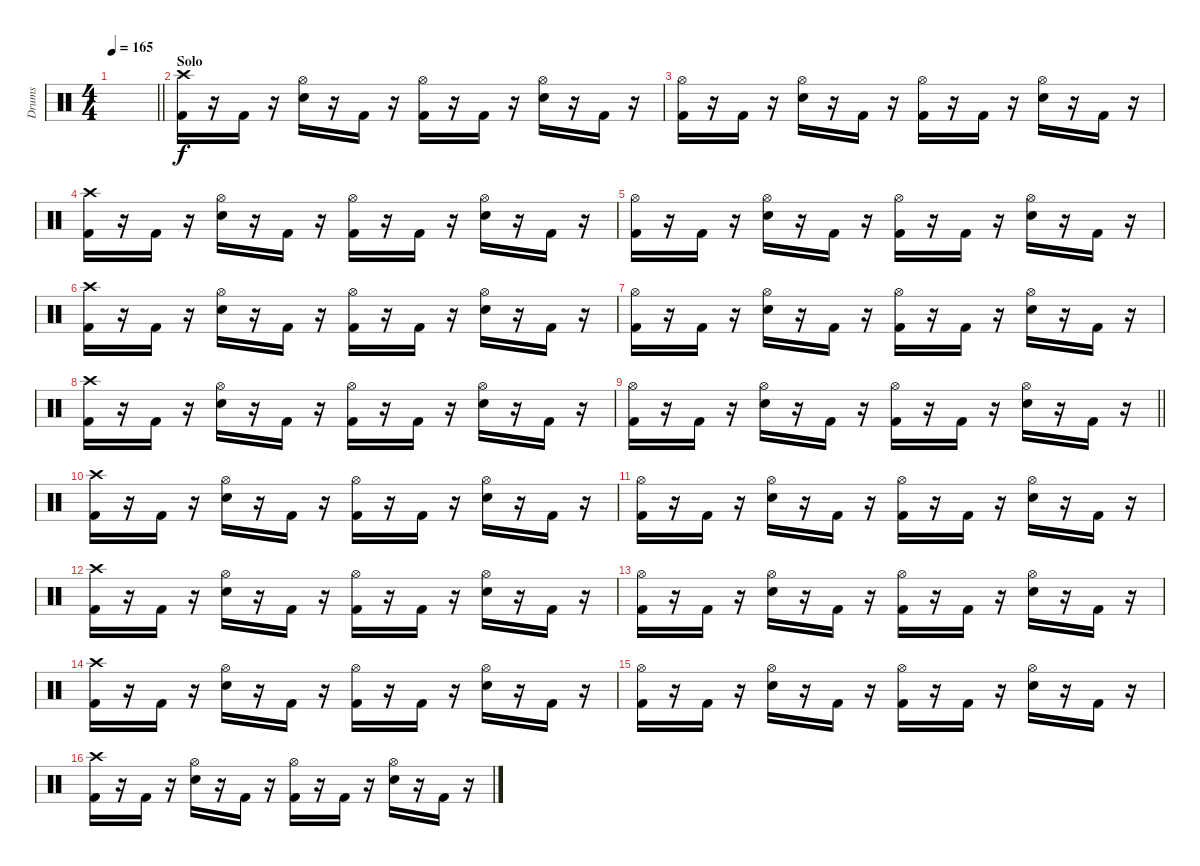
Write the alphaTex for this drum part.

\track ("Drums" "Drums") {instrument percussion}
\staff {score}
\articulation defaults
\ts (4 4)
\tempo 165
\clef neutral
\barLineRight lightlight
\ks c
|
\section ("" "Solo")
("Crash high (hit)" "Kick (hit) 2").16 r.16 "Kick (hit) 2".16 r.16 ("Hi-Hat (open)" "Snare (hit) 2").16 r.16 "Kick (hit) 2".16 r.16 ("Hi-Hat (open)" "Kick (hit) 2").16 r.16 "Kick (hit) 2".16 r.16 ("Hi-Hat (open)" "Snare (hit) 2").16 r.16 "Kick (hit) 2".16 r.16 |
("Hi-Hat (open)" "Kick (hit) 2").16 r.16 "Kick (hit) 2".16 r.16 ("Hi-Hat (open)" "Snare (hit) 2").16 r.16 "Kick (hit) 2".16 r.16 ("Hi-Hat (open)" "Kick (hit) 2").16 r.16 "Kick (hit) 2".16 r.16 ("Hi-Hat (open)" "Snare (hit) 2").16 r.16 "Kick (hit) 2".16 r.16 |
("Crash high (hit)" "Kick (hit) 2").16 r.16 "Kick (hit) 2".16 r.16 ("Hi-Hat (open)" "Snare (hit) 2").16 r.16 "Kick (hit) 2".16 r.16 ("Hi-Hat (open)" "Kick (hit) 2").16 r.16 "Kick (hit) 2".16 r.16 ("Hi-Hat (open)" "Snare (hit) 2").16 r.16 "Kick (hit) 2".16 r.16 |
("Hi-Hat (open)" "Kick (hit) 2").16 r.16 "Kick (hit) 2".16 r.16 ("Hi-Hat (open)" "Snare (hit) 2").16 r.16 "Kick (hit) 2".16 r.16 ("Hi-Hat (open)" "Kick (hit) 2").16 r.16 "Kick (hit) 2".16 r.16 ("Hi-Hat (open)" "Snare (hit) 2").16 r.16 "Kick (hit) 2".16 r.16 |
("Crash high (hit)" "Kick (hit) 2").16 r.16 "Kick (hit) 2".16 r.16 ("Hi-Hat (open)" "Snare (hit) 2").16 r.16 "Kick (hit) 2".16 r.16 ("Hi-Hat (open)" "Kick (hit) 2").16 r.16 "Kick (hit) 2".16 r.16 ("Hi-Hat (open)" "Snare (hit) 2").16 r.16 "Kick (hit) 2".16 r.16 |
("Hi-Hat (open)" "Kick (hit) 2").16 r.16 "Kick (hit) 2".16 r.16 ("Hi-Hat (open)" "Snare (hit) 2").16 r.16 "Kick (hit) 2".16 r.16 ("Hi-Hat (open)" "Kick (hit) 2").16 r.16 "Kick (hit) 2".16 r.16 ("Hi-Hat (open)" "Snare (hit) 2").16 r.16 "Kick (hit) 2".16 r.16 |
("Crash high (hit)" "Kick (hit) 2").16 r.16 "Kick (hit) 2".16 r.16 ("Hi-Hat (open)" "Snare (hit) 2").16 r.16 "Kick (hit) 2".16 r.16 ("Hi-Hat (open)" "Kick (hit) 2").16 r.16 "Kick (hit) 2".16 r.16 ("Hi-Hat (open)" "Snare (hit) 2").16 r.16 "Kick (hit) 2".16 r.16 |
\barLineRight lightlight
("Hi-Hat (open)" "Kick (hit) 2").16 r.16 "Kick (hit) 2".16 r.16 ("Hi-Hat (open)" "Snare (hit) 2").16 r.16 "Kick (hit) 2".16 r.16 ("Hi-Hat (open)" "Kick (hit) 2").16 r.16 "Kick (hit) 2".16 r.16 ("Hi-Hat (open)" "Snare (hit) 2").16 r.16 "Kick (hit) 2".16 r.16 |
("Crash high (hit)" "Kick (hit) 2").16 r.16 "Kick (hit) 2".16 r.16 ("Hi-Hat (open)" "Snare (hit) 2").16 r.16 "Kick (hit) 2".16 r.16 ("Hi-Hat (open)" "Kick (hit) 2").16 r.16 "Kick (hit) 2".16 r.16 ("Hi-Hat (open)" "Snare (hit) 2").16 r.16 "Kick (hit) 2".16 r.16 |
("Hi-Hat (open)" "Kick (hit) 2").16 r.16 "Kick (hit) 2".16 r.16 ("Hi-Hat (open)" "Snare (hit) 2").16 r.16 "Kick (hit) 2".16 r.16 ("Hi-Hat (open)" "Kick (hit) 2").16 r.16 "Kick (hit) 2".16 r.16 ("Hi-Hat (open)" "Snare (hit) 2").16 r.16 "Kick (hit) 2".16 r.16 |
("Crash high (hit)" "Kick (hit) 2").16 r.16 "Kick (hit) 2".16 r.16 ("Hi-Hat (open)" "Snare (hit) 2").16 r.16 "Kick (hit) 2".16 r.16 ("Hi-Hat (open)" "Kick (hit) 2").16 r.16 "Kick (hit) 2".16 r.16 ("Hi-Hat (open)" "Snare (hit) 2").16 r.16 "Kick (hit) 2".16 r.16 |
("Hi-Hat (open)" "Kick (hit) 2").16 r.16 "Kick (hit) 2".16 r.16 ("Hi-Hat (open)" "Snare (hit) 2").16 r.16 "Kick (hit) 2".16 r.16 ("Hi-Hat (open)" "Kick (hit) 2").16 r.16 "Kick (hit) 2".16 r.16 ("Hi-Hat (open)" "Snare (hit) 2").16 r.16 "Kick (hit) 2".16 r.16 |
("Crash high (hit)" "Kick (hit) 2").16 r.16 "Kick (hit) 2".16 r.16 ("Hi-Hat (open)" "Snare (hit) 2").16 r.16 "Kick (hit) 2".16 r.16 ("Hi-Hat (open)" "Kick (hit) 2").16 r.16 "Kick (hit) 2".16 r.16 ("Hi-Hat (open)" "Snare (hit) 2").16 r.16 "Kick (hit) 2".16 r.16 |
("Hi-Hat (open)" "Kick (hit) 2").16 r.16 "Kick (hit) 2".16 r.16 ("Hi-Hat (open)" "Snare (hit) 2").16 r.16 "Kick (hit) 2".16 r.16 ("Hi-Hat (open)" "Kick (hit) 2").16 r.16 "Kick (hit) 2".16 r.16 ("Hi-Hat (open)" "Snare (hit) 2").16 r.16 "Kick (hit) 2".16 r.16 |
("Crash high (hit)" "Kick (hit) 2").16 r.16 "Kick (hit) 2".16 r.16 ("Hi-Hat (open)" "Snare (hit) 2").16 r.16 "Kick (hit) 2".16 r.16 ("Hi-Hat (open)" "Kick (hit) 2").16 r.16 "Kick (hit) 2".16 r.16 ("Hi-Hat (open)" "Snare (hit) 2").16 r.16 "Kick (hit) 2".16 r.16
